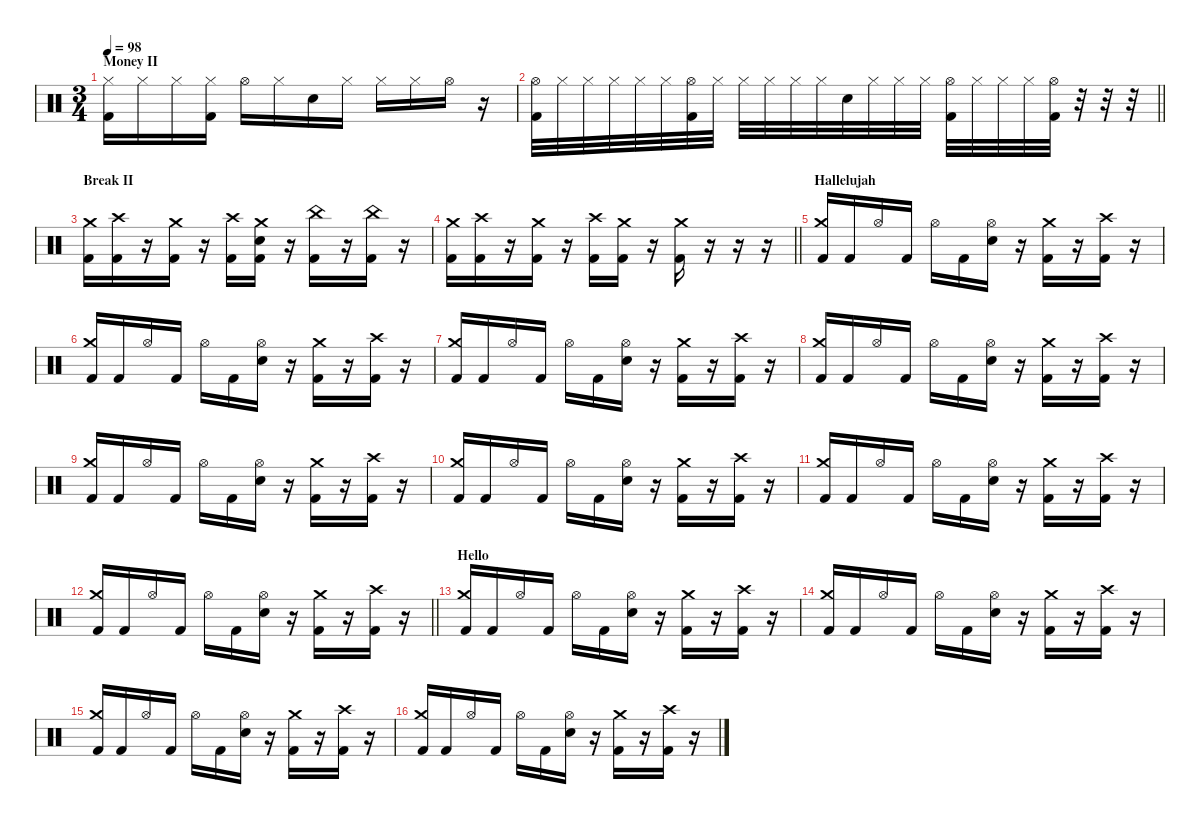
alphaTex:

\defaultSystemsLayout 4
\hideDynamics
\bracketExtendMode nobrackets
\singleTrackTrackNamePolicy hidden
\multiTrackTrackNamePolicy hidden
\firstSystemTrackNameMode fullname
\firstSystemTrackNameOrientation horizontal
\otherSystemsTrackNameOrientation horizontal
\track ("Drums" "drm.") {instrument percussion}
\staff {score}
\articulation defaults
\ts (3 4)
\section ("" "Money II")
\tempo 98
\clef neutral
\ks c
("Hi-Hat (closed)" "Kick (hit) 2").16{dy f beam Down} "Hi-Hat (closed)".16{beam Down} "Hi-Hat (closed)".16{beam Down} ("Hi-Hat (closed)" "Kick (hit) 2").16{beam Down} "Hi-Hat (open)".16{beam Down} "Hi-Hat (closed)".16{beam Down} "Snare (hit) 2".16{beam Down} "Hi-Hat (closed)".16{beam Down} "Hi-Hat (closed)".16{beam Down} "Hi-Hat (closed)".16{beam Down} "Hi-Hat (open)".16{beam Down} r.16{beam Down} |
\barLineRight lightlight
("Hi-Hat (open)" "Kick (hit) 2").32{beam Down} "Hi-Hat (closed)".32{beam Down} "Hi-Hat (closed)".32{beam Down} "Hi-Hat (closed)".32{beam Down} "Hi-Hat (closed)".32{beam Down} "Hi-Hat (closed)".32{beam Down} ("Hi-Hat (open)" "Kick (hit) 2").32{beam Down} "Hi-Hat (closed)".32{beam Down} "Hi-Hat (closed)".32{beam Down} "Hi-Hat (closed)".32{beam Down} "Hi-Hat (closed)".32{beam Down} "Hi-Hat (closed)".32{beam Down} "Snare (hit) 2".32{beam Down} "Hi-Hat (closed)".32{beam Down} "Hi-Hat (closed)".32{beam Down} "Hi-Hat (closed)".32{beam Down} ("Hi-Hat (open)" "Kick (hit) 2").32{beam Down} "Hi-Hat (closed)".32{beam Down} "Hi-Hat (closed)".32{beam Down} "Hi-Hat (closed)".32{beam Down} ("Hi-Hat (open)" "Kick (hit) 2").32{beam Down} r.32{beam Down} r.32{beam Down} r.32{beam Down} |
\section ("" "Break II")
("Crash medium (hit)" "Kick (hit) 2").16{beam Down} ("Crash high (hit)" "Kick (hit) 2").16{beam Down} r.16{beam Down} ("Crash medium (hit)" "Kick (hit) 2").16{beam Down} r.16{beam Down} ("Crash high (hit)" "Kick (hit) 2").16{beam Down} ("Crash medium (hit)" "Snare (hit) 2" "Kick (hit) 2").16{beam Down} r.16{beam Down} ("China (hit)" "Kick (hit) 2").16{beam Down} r.16{beam Down} ("China (hit)" "Kick (hit) 2").16{beam Down} r.16{beam Down} |
\barLineRight lightlight
("Crash medium (hit)" "Kick (hit) 2").16{beam Down} ("Crash high (hit)" "Kick (hit) 2").16{beam Down} r.16{beam Down} ("Crash medium (hit)" "Kick (hit) 2").16{beam Down} r.16{beam Down} ("Crash high (hit)" "Kick (hit) 2").16{beam Down} ("Crash medium (hit)" "Kick (hit) 2").16{beam Down} r.16{beam Down} ("Crash medium (hit)" "Kick (hit) 2").16{beam Down} r.16{beam Down} r.16{beam Down} r.16{beam Down} |
\section ("" "Hallelujah")
("Crash medium (hit)" "Kick (hit) 2").16{beam Up} "Kick (hit) 2".16{beam Up} "Hi-Hat (open)".16{beam Up} "Kick (hit) 2".16{beam Up} "Hi-Hat (open)".16{beam Down} "Kick (hit) 2".16{beam Down} ("Hi-Hat (open)" "Snare (hit) 2").16{beam Down} r.16{beam Down} ("Crash medium (hit)" "Kick (hit) 2").16{beam Down} r.16{beam Down} ("Crash high (hit)" "Kick (hit) 2").16{beam Down} r.16{beam Down} |
("Crash medium (hit)" "Kick (hit) 2").16{beam Up} "Kick (hit) 2".16{beam Up} "Hi-Hat (open)".16{beam Up} "Kick (hit) 2".16{beam Up} "Hi-Hat (open)".16{beam Down} "Kick (hit) 2".16{beam Down} ("Hi-Hat (open)" "Snare (hit) 2").16{beam Down} r.16{beam Down} ("Crash medium (hit)" "Kick (hit) 2").16{beam Down} r.16{beam Down} ("Crash high (hit)" "Kick (hit) 2").16{beam Down} r.16{beam Down} |
("Crash medium (hit)" "Kick (hit) 2").16{beam Up} "Kick (hit) 2".16{beam Up} "Hi-Hat (open)".16{beam Up} "Kick (hit) 2".16{beam Up} "Hi-Hat (open)".16{beam Down} "Kick (hit) 2".16{beam Down} ("Hi-Hat (open)" "Snare (hit) 2").16{beam Down} r.16{beam Down} ("Crash medium (hit)" "Kick (hit) 2").16{beam Down} r.16{beam Down} ("Crash high (hit)" "Kick (hit) 2").16{beam Down} r.16{beam Down} |
("Crash medium (hit)" "Kick (hit) 2").16{beam Up} "Kick (hit) 2".16{beam Up} "Hi-Hat (open)".16{beam Up} "Kick (hit) 2".16{beam Up} "Hi-Hat (open)".16{beam Down} "Kick (hit) 2".16{beam Down} ("Hi-Hat (open)" "Snare (hit) 2").16{beam Down} r.16{beam Down} ("Crash medium (hit)" "Kick (hit) 2").16{beam Down} r.16{beam Down} ("Crash high (hit)" "Kick (hit) 2").16{beam Down} r.16{beam Down} |
("Crash medium (hit)" "Kick (hit) 2").16{beam Up} "Kick (hit) 2".16{beam Up} "Hi-Hat (open)".16{beam Up} "Kick (hit) 2".16{beam Up} "Hi-Hat (open)".16{beam Down} "Kick (hit) 2".16{beam Down} ("Hi-Hat (open)" "Snare (hit) 2").16{beam Down} r.16{beam Down} ("Crash medium (hit)" "Kick (hit) 2").16{beam Down} r.16{beam Down} ("Crash high (hit)" "Kick (hit) 2").16{beam Down} r.16{beam Down} |
("Crash medium (hit)" "Kick (hit) 2").16{beam Up} "Kick (hit) 2".16{beam Up} "Hi-Hat (open)".16{beam Up} "Kick (hit) 2".16{beam Up} "Hi-Hat (open)".16{beam Down} "Kick (hit) 2".16{beam Down} ("Hi-Hat (open)" "Snare (hit) 2").16{beam Down} r.16{beam Down} ("Crash medium (hit)" "Kick (hit) 2").16{beam Down} r.16{beam Down} ("Crash high (hit)" "Kick (hit) 2").16{beam Down} r.16{beam Down} |
("Crash medium (hit)" "Kick (hit) 2").16{beam Up} "Kick (hit) 2".16{beam Up} "Hi-Hat (open)".16{beam Up} "Kick (hit) 2".16{beam Up} "Hi-Hat (open)".16{beam Down} "Kick (hit) 2".16{beam Down} ("Hi-Hat (open)" "Snare (hit) 2").16{beam Down} r.16{beam Down} ("Crash medium (hit)" "Kick (hit) 2").16{beam Down} r.16{beam Down} ("Crash high (hit)" "Kick (hit) 2").16{beam Down} r.16{beam Down} |
\barLineRight lightlight
("Crash medium (hit)" "Kick (hit) 2").16{beam Up} "Kick (hit) 2".16{beam Up} "Hi-Hat (open)".16{beam Up} "Kick (hit) 2".16{beam Up} "Hi-Hat (open)".16{beam Down} "Kick (hit) 2".16{beam Down} ("Hi-Hat (open)" "Snare (hit) 2").16{beam Down} r.16{beam Down} ("Crash medium (hit)" "Kick (hit) 2").16{beam Down} r.16{beam Down} ("Crash high (hit)" "Kick (hit) 2").16{beam Down} r.16{beam Down} |
\section ("" "Hello")
("Crash medium (hit)" "Kick (hit) 2").16{beam Up} "Kick (hit) 2".16{beam Up} "Hi-Hat (open)".16{beam Up} "Kick (hit) 2".16{beam Up} "Hi-Hat (open)".16{beam Down} "Kick (hit) 2".16{beam Down} ("Hi-Hat (open)" "Snare (hit) 2").16{beam Down} r.16{beam Down} ("Crash medium (hit)" "Kick (hit) 2").16{beam Down} r.16{beam Down} ("Crash high (hit)" "Kick (hit) 2").16{beam Down} r.16{beam Down} |
("Crash medium (hit)" "Kick (hit) 2").16{beam Up} "Kick (hit) 2".16{beam Up} "Hi-Hat (open)".16{beam Up} "Kick (hit) 2".16{beam Up} "Hi-Hat (open)".16{beam Down} "Kick (hit) 2".16{beam Down} ("Hi-Hat (open)" "Snare (hit) 2").16{beam Down} r.16{beam Down} ("Crash medium (hit)" "Kick (hit) 2").16{beam Down} r.16{beam Down} ("Crash high (hit)" "Kick (hit) 2").16{beam Down} r.16{beam Down} |
("Crash medium (hit)" "Kick (hit) 2").16{beam Up} "Kick (hit) 2".16{beam Up} "Hi-Hat (open)".16{beam Up} "Kick (hit) 2".16{beam Up} "Hi-Hat (open)".16{beam Down} "Kick (hit) 2".16{beam Down} ("Hi-Hat (open)" "Snare (hit) 2").16{beam Down} r.16{beam Down} ("Crash medium (hit)" "Kick (hit) 2").16{beam Down} r.16{beam Down} ("Crash high (hit)" "Kick (hit) 2").16{beam Down} r.16{beam Down} |
("Crash medium (hit)" "Kick (hit) 2").16{beam Up} "Kick (hit) 2".16{beam Up} "Hi-Hat (open)".16{beam Up} "Kick (hit) 2".16{beam Up} "Hi-Hat (open)".16{beam Down} "Kick (hit) 2".16{beam Down} ("Hi-Hat (open)" "Snare (hit) 2").16{beam Down} r.16{beam Down} ("Crash medium (hit)" "Kick (hit) 2").16{beam Down} r.16{beam Down} ("Crash high (hit)" "Kick (hit) 2").16{beam Down} r.16{beam Down}
